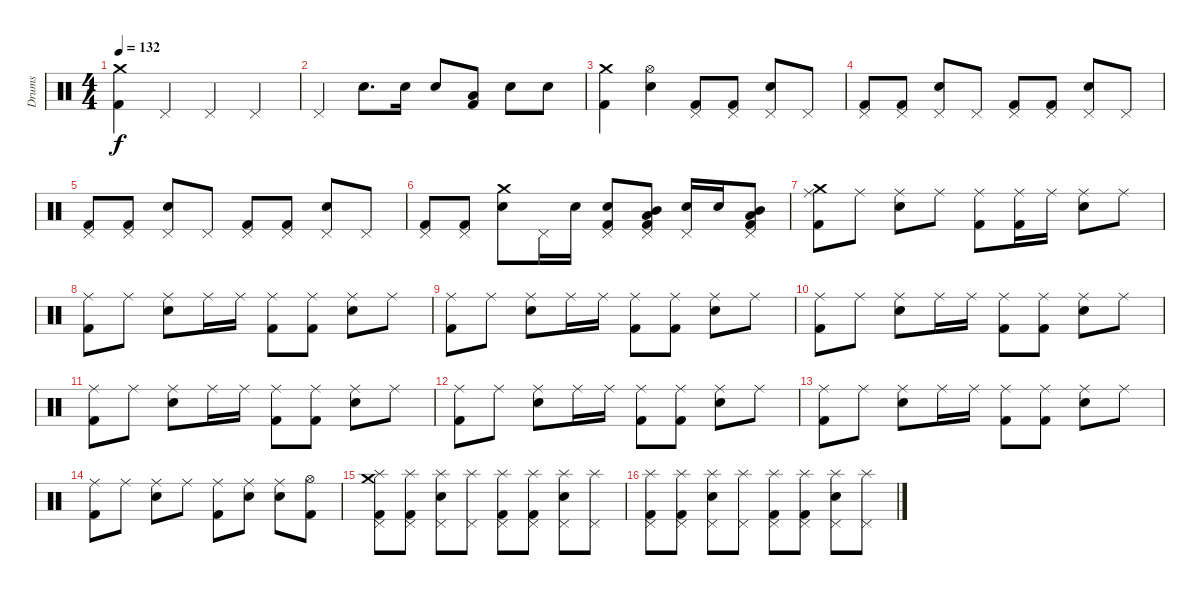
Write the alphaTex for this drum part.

\track ("Drums" "Drums") {instrument percussion}
\staff {score}
\articulation defaults
\ts (4 4)
\tempo 132
\clef neutral
\ks c
("Crash medium (hit)" "Kick (hit) 2").4{dy f} "Pedal Hi-Hat (hit)".4 "Pedal Hi-Hat (hit)".4 "Pedal Hi-Hat (hit)".4 |
"Pedal Hi-Hat (hit)".4 "Snare (hit) 2".8{d} "Snare (hit) 2".16 "Snare (hit) 2".8 ("Low Tom (hit)" "Kick (hit) 2").8 "Snare (hit) 2".8 "Snare (hit) 2".8 |
("Crash medium (hit)" "Kick (hit) 2").4 ("Snare (hit) 2" "Hi-Hat (open)").4 ("Kick (hit) 2" "Pedal Hi-Hat (hit)").8 ("Kick (hit) 2" "Pedal Hi-Hat (hit)").8 ("Snare (hit) 2" "Pedal Hi-Hat (hit)").8 "Pedal Hi-Hat (hit)".8 |
("Pedal Hi-Hat (hit)" "Kick (hit) 2").8 ("Pedal Hi-Hat (hit)" "Kick (hit) 2").8 ("Pedal Hi-Hat (hit)" "Snare (hit) 2").8 "Pedal Hi-Hat (hit)".8 ("Pedal Hi-Hat (hit)" "Kick (hit) 2").8 ("Pedal Hi-Hat (hit)" "Kick (hit) 2").8 ("Pedal Hi-Hat (hit)" "Snare (hit) 2").8 "Pedal Hi-Hat (hit)".8 |
("Pedal Hi-Hat (hit)" "Kick (hit) 2").8 ("Pedal Hi-Hat (hit)" "Kick (hit) 2").8 ("Pedal Hi-Hat (hit)" "Snare (hit) 2").8 "Pedal Hi-Hat (hit)".8 ("Pedal Hi-Hat (hit)" "Kick (hit) 2").8 ("Pedal Hi-Hat (hit)" "Kick (hit) 2").8 ("Pedal Hi-Hat (hit)" "Snare (hit) 2").8 "Pedal Hi-Hat (hit)".8 |
("Pedal Hi-Hat (hit)" "Kick (hit) 2").8 ("Pedal Hi-Hat (hit)" "Kick (hit) 2").8 ("Snare (hit) 2" "Crash medium (hit)").8 "Pedal Hi-Hat (hit)".16 "Snare (hit) 2".16 ("Pedal Hi-Hat (hit)" "Kick (hit) 2" "Snare (hit) 2").8 ("Pedal Hi-Hat (hit)" "Mid Tom (hit)" "Kick (hit) 2" "Low Tom (hit)").8 ("Pedal Hi-Hat (hit)" "Snare (hit) 2").16 "Snare (hit) 2".16 ("Pedal Hi-Hat (hit)" "Kick (hit) 2" "Low Tom (hit)" "Mid Tom (hit)").8 |
("Crash medium (hit)" "Ride (middle)" "Kick (hit) 2").8 "Ride (middle)".8 ("Ride (middle)" "Snare (hit) 2").8 "Ride (middle)".8 ("Ride (middle)" "Kick (hit) 2").8 ("Ride (middle)" "Kick (hit) 2").16 "Ride (middle)".16 ("Ride (middle)" "Snare (hit) 2").8 "Ride (middle)".8 |
("Ride (middle)" "Kick (hit) 2").8 "Ride (middle)".8 ("Ride (middle)" "Snare (hit) 2").8 "Ride (middle)".16 "Ride (middle)".16 ("Ride (middle)" "Kick (hit) 2").8 ("Ride (middle)" "Kick (hit) 2").8 ("Ride (middle)" "Snare (hit) 2").8 "Ride (middle)".8 |
("Ride (middle)" "Kick (hit) 2").8 "Ride (middle)".8 ("Ride (middle)" "Snare (hit) 2").8 "Ride (middle)".16 "Ride (middle)".16 ("Ride (middle)" "Kick (hit) 2").8 ("Ride (middle)" "Kick (hit) 2").8 ("Ride (middle)" "Snare (hit) 2").8 "Ride (middle)".8 |
("Ride (middle)" "Kick (hit) 2").8 "Ride (middle)".8 ("Ride (middle)" "Snare (hit) 2").8 "Ride (middle)".16 "Ride (middle)".16 ("Ride (middle)" "Kick (hit) 2").8 ("Ride (middle)" "Kick (hit) 2").8 ("Ride (middle)" "Snare (hit) 2").8 "Ride (middle)".8 |
("Ride (middle)" "Kick (hit) 2").8 "Ride (middle)".8 ("Ride (middle)" "Snare (hit) 2").8 "Ride (middle)".16 "Ride (middle)".16 ("Ride (middle)" "Kick (hit) 2").8 ("Ride (middle)" "Kick (hit) 2").8 ("Ride (middle)" "Snare (hit) 2").8 "Ride (middle)".8 |
("Ride (middle)" "Kick (hit) 2").8 "Ride (middle)".8 ("Ride (middle)" "Snare (hit) 2").8 "Ride (middle)".16 "Ride (middle)".16 ("Ride (middle)" "Kick (hit) 2").8 ("Ride (middle)" "Kick (hit) 2").8 ("Ride (middle)" "Snare (hit) 2").8 "Ride (middle)".8 |
("Ride (middle)" "Kick (hit) 2").8 "Ride (middle)".8 ("Ride (middle)" "Snare (hit) 2").8 "Ride (middle)".16 "Ride (middle)".16 ("Ride (middle)" "Kick (hit) 2").8 ("Ride (middle)" "Kick (hit) 2").8 ("Ride (middle)" "Snare (hit) 2").8 "Ride (middle)".8 |
("Ride (middle)" "Kick (hit) 2").8 "Ride (middle)".8 ("Ride (middle)" "Snare (hit) 2").8 "Ride (middle)".8 ("Ride (middle)" "Kick (hit) 2").8 ("Ride (middle)" "Snare (hit) 2").8 ("Ride (middle)" "Snare (hit) 2").8 ("Kick (hit) 2" "Hi-Hat (open)").8 |
("Pedal Hi-Hat (hit)" "Splash (hit)" "Kick (hit) 2" "Crash medium (hit)").8 ("Splash (hit)" "Pedal Hi-Hat (hit)" "Kick (hit) 2").8 ("Pedal Hi-Hat (hit)" "Splash (hit)" "Snare (hit) 2").8 ("Splash (hit)" "Pedal Hi-Hat (hit)").8 ("Pedal Hi-Hat (hit)" "Splash (hit)" "Kick (hit) 2").8 ("Splash (hit)" "Pedal Hi-Hat (hit)" "Kick (hit) 2").8 ("Pedal Hi-Hat (hit)" "Splash (hit)" "Snare (hit) 2").8 ("Splash (hit)" "Pedal Hi-Hat (hit)").8 |
("Pedal Hi-Hat (hit)" "Splash (hit)" "Kick (hit) 2").8 ("Splash (hit)" "Pedal Hi-Hat (hit)" "Kick (hit) 2").8 ("Pedal Hi-Hat (hit)" "Splash (hit)" "Snare (hit) 2").8 ("Splash (hit)" "Pedal Hi-Hat (hit)").8 ("Pedal Hi-Hat (hit)" "Splash (hit)" "Kick (hit) 2").8 ("Splash (hit)" "Pedal Hi-Hat (hit)" "Kick (hit) 2").8 ("Pedal Hi-Hat (hit)" "Splash (hit)" "Snare (hit) 2").8 ("Splash (hit)" "Pedal Hi-Hat (hit)").8
